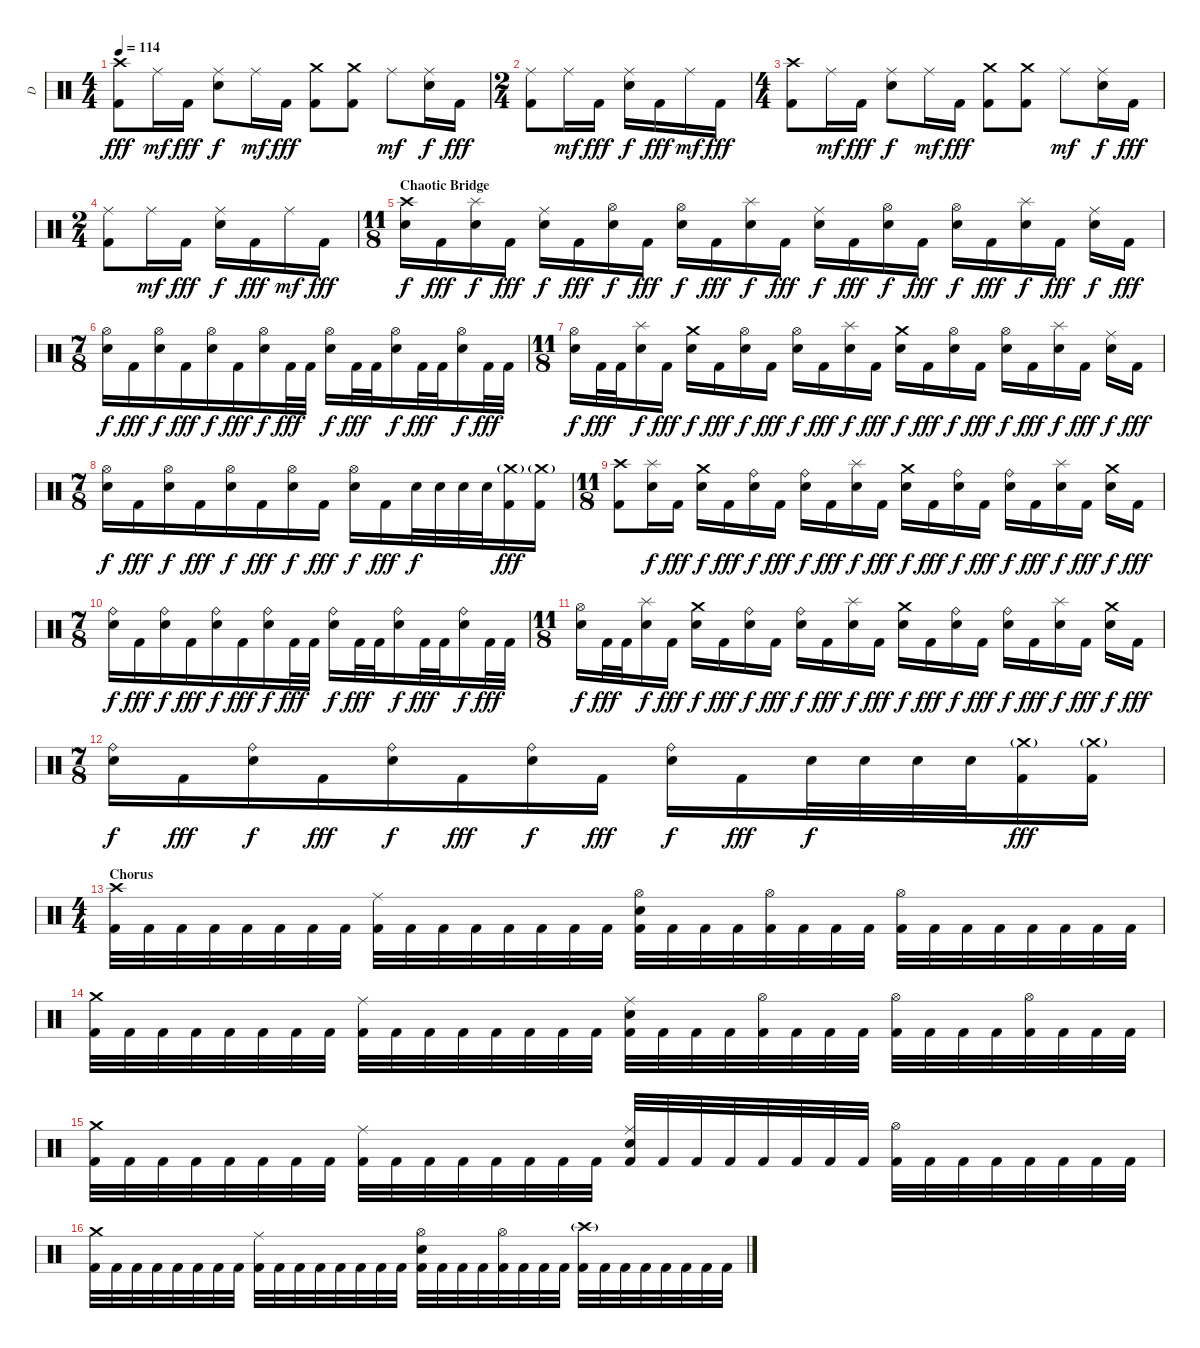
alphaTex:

\track ("D" "D") {instrument percussion}
\staff {score}
\articulation defaults
\ts (4 4)
\tempo 114
\clef neutral
\ks c
("Crash high (hit)" "Kick (hit) 2").8{dy fff} "Ride (middle)".16{dy mf} "Kick (hit) 2".16{dy fff} ("Ride (middle)" "Electric Snare (hit)").8{dy f} "Ride (middle)".16{dy mf} "Kick (hit) 2".16{dy fff} ("Crash medium (hit)" "Kick (hit) 2").8 ("Crash medium (hit)" "Kick (hit) 2").8 "Ride (middle)".8{dy mf} ("Ride (middle)" "Electric Snare (hit)").16{dy f} "Kick (hit) 2".16{dy fff} |
\ts (2 4)
("Ride (middle)" "Kick (hit) 2").8 "Ride (middle)".16{dy mf} "Kick (hit) 2".16{dy fff} ("Ride (middle)" "Electric Snare (hit)").16{dy f} "Kick (hit) 2".16{dy fff} "Ride (middle)".16{dy mf} "Kick (hit) 2".16{dy fff} |
\ts (4 4)
("Crash high (hit)" "Kick (hit) 2").8 "Ride (middle)".16{dy mf} "Kick (hit) 2".16{dy fff} ("Ride (middle)" "Electric Snare (hit)").8{dy f} "Ride (middle)".16{dy mf} "Kick (hit) 2".16{dy fff} ("Crash medium (hit)" "Kick (hit) 2").8 ("Crash medium (hit)" "Kick (hit) 2").8 "Ride (middle)".8{dy mf} ("Ride (middle)" "Electric Snare (hit)").16{dy f} "Kick (hit) 2".16{dy fff} |
\ts (2 4)
("Ride (middle)" "Kick (hit) 2").8 "Ride (middle)".16{dy mf} "Kick (hit) 2".16{dy fff} ("Ride (middle)" "Electric Snare (hit)").16{dy f} "Kick (hit) 2".16{dy fff} "Ride (middle)".16{dy mf} "Kick (hit) 2".16{dy fff} |
\ts (11 8)
\section ("" "Chaotic Bridge")
("Crash high (hit)" "Electric Snare (hit)").16{dy f} "Kick (hit) 2".16{dy fff} ("Splash (hit)" "Electric Snare (hit)").16{dy f} "Kick (hit) 2".16{dy fff} ("Ride (middle)" "Electric Snare (hit)").16{dy f} "Kick (hit) 2".16{dy fff} ("Hi-Hat (open)" "Electric Snare (hit)").16{dy f} "Kick (hit) 2".16{dy fff} ("Hi-Hat (open)" "Electric Snare (hit)").16{dy f} "Kick (hit) 2".16{dy fff} ("Splash (hit)" "Electric Snare (hit)").16{dy f} "Kick (hit) 2".16{dy fff} ("Ride (middle)" "Electric Snare (hit)").16{dy f} "Kick (hit) 2".16{dy fff} ("Hi-Hat (open)" "Electric Snare (hit)").16{dy f} "Kick (hit) 2".16{dy fff} ("Hi-Hat (open)" "Electric Snare (hit)").16{dy f} "Kick (hit) 2".16{dy fff} ("Splash (hit)" "Electric Snare (hit)").16{dy f} "Kick (hit) 2".16{dy fff} ("Ride (middle)" "Electric Snare (hit)").16{dy f} "Kick (hit) 2".16{dy fff} |
\ts (7 8)
("Hi-Hat (open)" "Electric Snare (hit)").16{dy f} "Kick (hit) 2".16{dy fff} ("Hi-Hat (open)" "Electric Snare (hit)").16{dy f} "Kick (hit) 2".16{dy fff} ("Hi-Hat (open)" "Electric Snare (hit)").16{dy f} "Kick (hit) 2".16{dy fff} ("Hi-Hat (open)" "Electric Snare (hit)").16{dy f} "Kick (hit) 2".32{dy fff} "Kick (hit) 2".32 ("Hi-Hat (open)" "Electric Snare (hit)").16{dy f} "Kick (hit) 2".32{dy fff} "Kick (hit) 2".32 ("Hi-Hat (open)" "Electric Snare (hit)").16{dy f} "Kick (hit) 2".32{dy fff} "Kick (hit) 2".32 ("Hi-Hat (open)" "Electric Snare (hit)").16{dy f} "Kick (hit) 2".32{dy fff} "Kick (hit) 2".32 |
\ts (11 8)
("Hi-Hat (open)" "Electric Snare (hit)").16{dy f} "Kick (hit) 2".32{dy fff} "Kick (hit) 2".32 ("Splash (hit)" "Electric Snare (hit)").16{dy f} "Kick (hit) 2".16{dy fff} ("Crash medium (hit)" "Electric Snare (hit)").16{dy f} "Kick (hit) 2".16{dy fff} ("Hi-Hat (open)" "Electric Snare (hit)").16{dy f} "Kick (hit) 2".16{dy fff} ("Hi-Hat (open)" "Electric Snare (hit)").16{dy f} "Kick (hit) 2".16{dy fff} ("Splash (hit)" "Electric Snare (hit)").16{dy f} "Kick (hit) 2".16{dy fff} ("Crash medium (hit)" "Electric Snare (hit)").16{dy f} "Kick (hit) 2".16{dy fff} ("Hi-Hat (open)" "Electric Snare (hit)").16{dy f} "Kick (hit) 2".16{dy fff} ("Hi-Hat (open)" "Electric Snare (hit)").16{dy f} "Kick (hit) 2".16{dy fff} ("Splash (hit)" "Electric Snare (hit)").16{dy f} "Kick (hit) 2".16{dy fff} ("Ride (middle)" "Electric Snare (hit)").16{dy f} "Kick (hit) 2".16{dy fff} |
\ts (7 8)
("Hi-Hat (open)" "Electric Snare (hit)").16{dy f} "Kick (hit) 2".16{dy fff} ("Hi-Hat (open)" "Electric Snare (hit)").16{dy f} "Kick (hit) 2".16{dy fff} ("Hi-Hat (open)" "Electric Snare (hit)").16{dy f} "Kick (hit) 2".16{dy fff} ("Hi-Hat (open)" "Electric Snare (hit)").16{dy f} "Kick (hit) 2".16{dy fff} ("Hi-Hat (open)" "Electric Snare (hit)").16{dy f} "Kick (hit) 2".16{dy fff} "Electric Snare (hit)".32{dy f} "Electric Snare (hit)".32 "Electric Snare (hit)".32 "Electric Snare (hit)".32 ("Crash medium (hit)"{g} "Kick (hit) 2").16{dy fff} ("Crash medium (hit)"{g} "Kick (hit) 2").16 |
\ts (11 8)
("Crash high (hit)" "Kick (hit) 2").8 ("Splash (hit)" "Electric Snare (hit)").16{dy f} "Kick (hit) 2".16{dy fff} ("Crash medium (hit)" "Electric Snare (hit)").16{dy f} "Kick (hit) 2".16{dy fff} ("Ride (bell)" "Electric Snare (hit)").16{dy f} "Kick (hit) 2".16{dy fff} ("Ride (bell)" "Electric Snare (hit)").16{dy f} "Kick (hit) 2".16{dy fff} ("Splash (hit)" "Electric Snare (hit)").16{dy f} "Kick (hit) 2".16{dy fff} ("Crash medium (hit)" "Electric Snare (hit)").16{dy f} "Kick (hit) 2".16{dy fff} ("Ride (bell)" "Electric Snare (hit)").16{dy f} "Kick (hit) 2".16{dy fff} ("Ride (bell)" "Electric Snare (hit)").16{dy f} "Kick (hit) 2".16{dy fff} ("Splash (hit)" "Electric Snare (hit)").16{dy f} "Kick (hit) 2".16{dy fff} ("Crash medium (hit)" "Electric Snare (hit)").16{dy f} "Kick (hit) 2".16{dy fff} |
\ts (7 8)
("Ride (bell)" "Electric Snare (hit)").16{dy f} "Kick (hit) 2".16{dy fff} ("Ride (bell)" "Electric Snare (hit)").16{dy f} "Kick (hit) 2".16{dy fff} ("Ride (bell)" "Electric Snare (hit)").16{dy f} "Kick (hit) 2".16{dy fff} ("Ride (bell)" "Electric Snare (hit)").16{dy f} "Kick (hit) 2".32{dy fff} "Kick (hit) 2".32 ("Ride (bell)" "Electric Snare (hit)").16{dy f} "Kick (hit) 2".32{dy fff} "Kick (hit) 2".32 ("Ride (bell)" "Electric Snare (hit)").16{dy f} "Kick (hit) 2".32{dy fff} "Kick (hit) 2".32 ("Ride (bell)" "Electric Snare (hit)").16{dy f} "Kick (hit) 2".32{dy fff} "Kick (hit) 2".32 |
\ts (11 8)
("Hi-Hat (open)" "Electric Snare (hit)").16{dy f} "Kick (hit) 2".32{dy fff} "Kick (hit) 2".32 ("Splash (hit)" "Electric Snare (hit)").16{dy f} "Kick (hit) 2".16{dy fff} ("Crash medium (hit)" "Electric Snare (hit)").16{dy f} "Kick (hit) 2".16{dy fff} ("Ride (bell)" "Electric Snare (hit)").16{dy f} "Kick (hit) 2".16{dy fff} ("Ride (bell)" "Electric Snare (hit)").16{dy f} "Kick (hit) 2".16{dy fff} ("Splash (hit)" "Electric Snare (hit)").16{dy f} "Kick (hit) 2".16{dy fff} ("Crash medium (hit)" "Electric Snare (hit)").16{dy f} "Kick (hit) 2".16{dy fff} ("Ride (bell)" "Electric Snare (hit)").16{dy f} "Kick (hit) 2".16{dy fff} ("Ride (bell)" "Electric Snare (hit)").16{dy f} "Kick (hit) 2".16{dy fff} ("Splash (hit)" "Electric Snare (hit)").16{dy f} "Kick (hit) 2".16{dy fff} ("Crash medium (hit)" "Electric Snare (hit)").16{dy f} "Kick (hit) 2".16{dy fff} |
\ts (7 8)
("Ride (bell)" "Electric Snare (hit)").16{dy f} "Kick (hit) 2".16{dy fff} ("Ride (bell)" "Electric Snare (hit)").16{dy f} "Kick (hit) 2".16{dy fff} ("Ride (bell)" "Electric Snare (hit)").16{dy f} "Kick (hit) 2".16{dy fff} ("Ride (bell)" "Electric Snare (hit)").16{dy f} "Kick (hit) 2".16{dy fff} ("Ride (bell)" "Electric Snare (hit)").16{dy f} "Kick (hit) 2".16{dy fff} "Electric Snare (hit)".32{dy f} "Electric Snare (hit)".32 "Electric Snare (hit)".32 "Electric Snare (hit)".32 ("Crash medium (hit)"{g} "Kick (hit) 2").16{dy fff} ("Crash medium (hit)"{g} "Kick (hit) 2").16 |
\ts (4 4)
\section ("" "Chorus")
("Crash high (hit)" "Kick (hit) 2").32 "Kick (hit) 2".32 "Kick (hit) 2".32 "Kick (hit) 2".32 "Kick (hit) 2".32 "Kick (hit) 2".32 "Kick (hit) 2".32 "Kick (hit) 2".32 ("Ride (middle)" "Kick (hit) 2").32 "Kick (hit) 2".32 "Kick (hit) 2".32 "Kick (hit) 2".32 "Kick (hit) 2".32 "Kick (hit) 2".32 "Kick (hit) 2".32 "Kick (hit) 2".32 ("Hi-Hat (open)" "Electric Snare (hit)" "Kick (hit) 2").32 "Kick (hit) 2".32 "Kick (hit) 2".32 "Kick (hit) 2".32 ("Hi-Hat (open)" "Kick (hit) 2").32 "Kick (hit) 2".32 "Kick (hit) 2".32 "Kick (hit) 2".32 ("Hi-Hat (open)" "Kick (hit) 2").32 "Kick (hit) 2".32 "Kick (hit) 2".32 "Kick (hit) 2".32 "Kick (hit) 2".32 "Kick (hit) 2".32 "Kick (hit) 2".32 "Kick (hit) 2".32 |
("Crash medium (hit)" "Kick (hit) 2").32 "Kick (hit) 2".32 "Kick (hit) 2".32 "Kick (hit) 2".32 "Kick (hit) 2".32 "Kick (hit) 2".32 "Kick (hit) 2".32 "Kick (hit) 2".32 ("Ride (middle)" "Kick (hit) 2").32 "Kick (hit) 2".32 "Kick (hit) 2".32 "Kick (hit) 2".32 "Kick (hit) 2".32 "Kick (hit) 2".32 "Kick (hit) 2".32 "Kick (hit) 2".32 ("Ride (middle)" "Electric Snare (hit)" "Kick (hit) 2").32 "Kick (hit) 2".32 "Kick (hit) 2".32 "Kick (hit) 2".32 ("Hi-Hat (open)" "Kick (hit) 2").32 "Kick (hit) 2".32 "Kick (hit) 2".32 "Kick (hit) 2".32 ("Hi-Hat (open)" "Kick (hit) 2").32 "Kick (hit) 2".32 "Kick (hit) 2".32 "Kick (hit) 2".32 ("Hi-Hat (open)" "Kick (hit) 2").32 "Kick (hit) 2".32 "Kick (hit) 2".32 "Kick (hit) 2".32 |
("Crash medium (hit)" "Kick (hit) 2").32 "Kick (hit) 2".32 "Kick (hit) 2".32 "Kick (hit) 2".32 "Kick (hit) 2".32 "Kick (hit) 2".32 "Kick (hit) 2".32 "Kick (hit) 2".32 ("Ride (middle)" "Kick (hit) 2").32 "Kick (hit) 2".32 "Kick (hit) 2".32 "Kick (hit) 2".32 "Kick (hit) 2".32 "Kick (hit) 2".32 "Kick (hit) 2".32 "Kick (hit) 2".32 ("Ride (middle)" "Electric Snare (hit)" "Kick (hit) 2").32 "Kick (hit) 2".32 "Kick (hit) 2".32 "Kick (hit) 2".32 "Kick (hit) 2".32 "Kick (hit) 2".32 "Kick (hit) 2".32 "Kick (hit) 2".32 ("Hi-Hat (open)" "Kick (hit) 2").32 "Kick (hit) 2".32 "Kick (hit) 2".32 "Kick (hit) 2".32 "Kick (hit) 2".32 "Kick (hit) 2".32 "Kick (hit) 2".32 "Kick (hit) 2".32 |
("Crash medium (hit)" "Kick (hit) 2").32 "Kick (hit) 2".32 "Kick (hit) 2".32 "Kick (hit) 2".32 "Kick (hit) 2".32 "Kick (hit) 2".32 "Kick (hit) 2".32 "Kick (hit) 2".32 ("Ride (middle)" "Kick (hit) 2").32 "Kick (hit) 2".32 "Kick (hit) 2".32 "Kick (hit) 2".32 "Kick (hit) 2".32 "Kick (hit) 2".32 "Kick (hit) 2".32 "Kick (hit) 2".32 ("Hi-Hat (open)" "Electric Snare (hit)" "Kick (hit) 2").32 "Kick (hit) 2".32 "Kick (hit) 2".32 "Kick (hit) 2".32 ("Hi-Hat (open)" "Kick (hit) 2").32 "Kick (hit) 2".32 "Kick (hit) 2".32 "Kick (hit) 2".32 ("Crash high (hit)"{g} "Kick (hit) 2").32 "Kick (hit) 2".32 "Kick (hit) 2".32 "Kick (hit) 2".32 "Kick (hit) 2".32 "Kick (hit) 2".32 "Kick (hit) 2".32 "Kick (hit) 2".32
